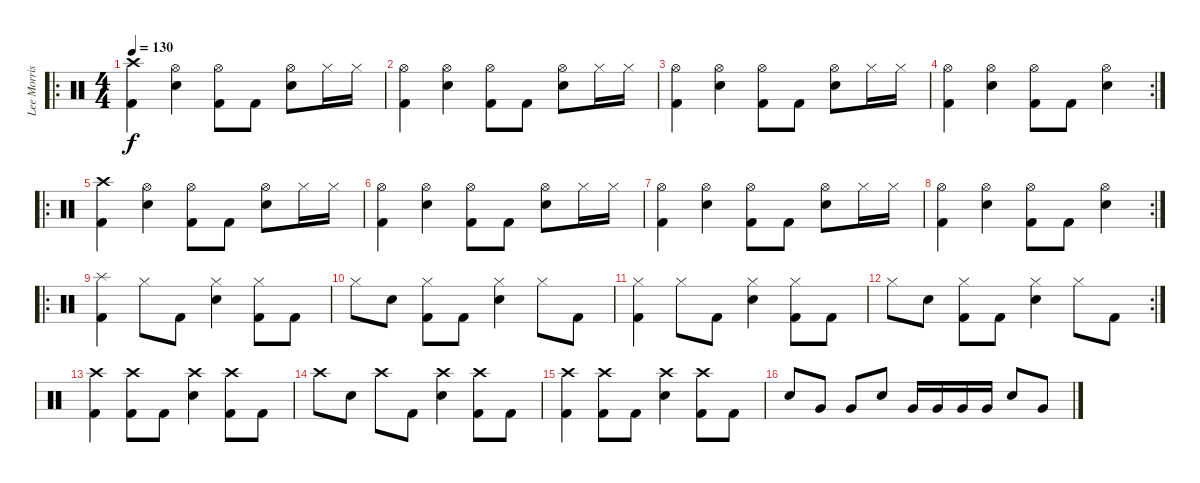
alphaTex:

\track ("Lee Morris" "Lee Morris") {instrument percussion}
\staff {score}
\articulation defaults
\ro
\ts (4 4)
\tempo 130
\clef neutral
\ks c
("Crash high (hit)" "Kick (hit) 2").4{dy f} ("Hi-Hat (open)" "Electric Snare (hit)").4 ("Hi-Hat (open)" "Kick (hit) 2").8 "Kick (hit) 2".8 ("Hi-Hat (open)" "Electric Snare (hit)").8 "Hi-Hat (closed)".16 "Hi-Hat (closed)".16 |
("Hi-Hat (open)" "Kick (hit) 2").4 ("Hi-Hat (open)" "Electric Snare (hit)").4 ("Hi-Hat (open)" "Kick (hit) 2").8 "Kick (hit) 2".8 ("Hi-Hat (open)" "Electric Snare (hit)").8 "Hi-Hat (closed)".16 "Hi-Hat (closed)".16 |
("Hi-Hat (open)" "Kick (hit) 2").4 ("Hi-Hat (open)" "Electric Snare (hit)").4 ("Hi-Hat (open)" "Kick (hit) 2").8 "Kick (hit) 2".8 ("Hi-Hat (open)" "Electric Snare (hit)").8 "Hi-Hat (closed)".16 "Hi-Hat (closed)".16 |
\rc 2
("Hi-Hat (open)" "Kick (hit) 2").4 ("Hi-Hat (open)" "Electric Snare (hit)").4 ("Hi-Hat (open)" "Kick (hit) 2").8 "Kick (hit) 2".8 ("Hi-Hat (open)" "Electric Snare (hit)").4 |
\ro
("Crash high (hit)" "Kick (hit) 2").4 ("Hi-Hat (open)" "Electric Snare (hit)").4 ("Hi-Hat (open)" "Kick (hit) 2").8 "Kick (hit) 2".8 ("Hi-Hat (open)" "Electric Snare (hit)").8 "Hi-Hat (closed)".16 "Hi-Hat (closed)".16 |
("Hi-Hat (open)" "Kick (hit) 2").4 ("Hi-Hat (open)" "Electric Snare (hit)").4 ("Hi-Hat (open)" "Kick (hit) 2").8 "Kick (hit) 2".8 ("Hi-Hat (open)" "Electric Snare (hit)").8 "Hi-Hat (closed)".16 "Hi-Hat (closed)".16 |
("Hi-Hat (open)" "Kick (hit) 2").4 ("Hi-Hat (open)" "Electric Snare (hit)").4 ("Hi-Hat (open)" "Kick (hit) 2").8 "Kick (hit) 2".8 ("Hi-Hat (open)" "Electric Snare (hit)").8 "Hi-Hat (closed)".16 "Hi-Hat (closed)".16 |
\rc 2
("Hi-Hat (open)" "Kick (hit) 2").4 ("Hi-Hat (open)" "Electric Snare (hit)").4 ("Hi-Hat (open)" "Kick (hit) 2").8 "Kick (hit) 2".8 ("Hi-Hat (open)" "Electric Snare (hit)").4 |
\ro
("Splash (hit)" "Kick (hit) 2").4 "Hi-Hat (closed)".8 "Kick (hit) 2".8 ("Hi-Hat (closed)" "Electric Snare (hit)").4 ("Kick (hit) 2" "Hi-Hat (closed)").8 "Kick (hit) 2".8 |
"Hi-Hat (closed)".8 "Electric Snare (hit)".8 ("Hi-Hat (closed)" "Kick (hit) 2").8 "Kick (hit) 2".8 ("Hi-Hat (closed)" "Electric Snare (hit)").4 "Hi-Hat (closed)".8 "Kick (hit) 2".8 |
("Hi-Hat (closed)" "Kick (hit) 2").4 "Hi-Hat (closed)".8 "Kick (hit) 2".8 ("Hi-Hat (closed)" "Electric Snare (hit)").4 ("Kick (hit) 2" "Hi-Hat (closed)").8 "Kick (hit) 2".8 |
\rc 2 "Hi-Hat (closed)".8 "Electric Snare (hit)".8
("Hi-Hat (closed)" "Kick (hit) 2").8 "Kick (hit) 2".8 ("Hi-Hat (closed)" "Electric Snare (hit)").4 "Hi-Hat (closed)".8 "Kick (hit) 2".8 |
("Crash high (hit)" "Kick (hit) 2").4 ("Crash high (hit)" "Kick (hit) 2").8 "Kick (hit) 2".8 ("Crash high (hit)" "Electric Snare (hit)").4 ("Crash high (hit)" "Kick (hit) 2").8 "Kick (hit) 2".8 |
"Crash high (hit)".8 "Electric Snare (hit)".8 "Crash high (hit)".8 "Kick (hit) 2".8 ("Crash high (hit)" "Electric Snare (hit)").4 ("Crash high (hit)" "Kick (hit) 2").8 "Kick (hit) 2".8 |
("Crash high (hit)" "Kick (hit) 2").4 ("Crash high (hit)" "Kick (hit) 2").8 "Kick (hit) 2".8 ("Crash high (hit)" "Electric Snare (hit)").4 ("Crash high (hit)" "Kick (hit) 2").8 "Kick (hit) 2".8 |
"Electric Snare (hit)".8 "Very Low Tom (hit)".8 "Very Low Tom (hit)".8 "Electric Snare (hit)".8 "Very Low Tom (hit)".16 "Very Low Tom (hit)".16 "Very Low Tom (hit)".16 "Very Low Tom (hit)".16 "Electric Snare (hit)".8 "Very Low Tom (hit)".8
